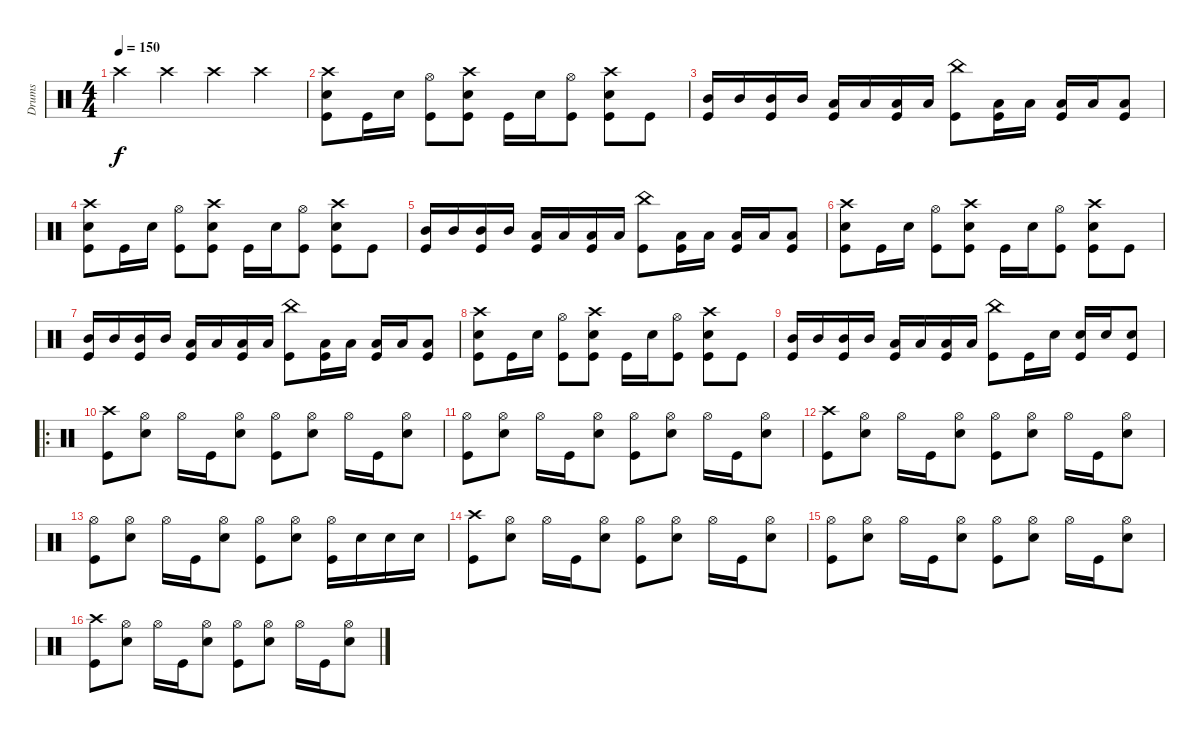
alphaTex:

\track ("Drums" "Drums") {instrument percussion}
\staff {score}
\articulation defaults
\ts (4 4)
\tempo 150
\clef neutral
\ks c "Crash high (hit)".4{dy f} "Crash high (hit)".4 "Crash high (hit)".4 "Crash high (hit)".4
|
("Crash high (hit)" "Snare (hit) 2" "Kick (hit)").8 "Kick (hit)".16 "Snare (hit) 2".16 ("Hi-Hat (open)" "Kick (hit)").8 ("Crash high (hit)" "Snare (hit) 2" "Kick (hit)").8 "Kick (hit)".16 "Snare (hit) 2".16 ("Hi-Hat (open)" "Kick (hit)").8 ("Crash high (hit)" "Snare (hit) 2" "Kick (hit)").8 "Kick (hit)".8 |
("Mid Tom (hit)" "Kick (hit)").16 "Mid Tom (hit)".16 ("Mid Tom (hit)" "Kick (hit)").16 "Mid Tom (hit)".16 ("Low Tom (hit)" "Kick (hit)").16 "Low Tom (hit)".16 ("Low Tom (hit)" "Kick (hit)").16 "Low Tom (hit)".16 ("China (hit)" "Kick (hit)").8 ("Low Floor Tom (hit)" "Kick (hit)").16 "Low Floor Tom (hit)".16 ("Low Floor Tom (hit)" "Kick (hit)").16 "Low Floor Tom (hit)".16 ("Low Floor Tom (hit)" "Kick (hit)").8 |
("Crash high (hit)" "Snare (hit) 2" "Kick (hit)").8 "Kick (hit)".16 "Snare (hit) 2".16 ("Hi-Hat (open)" "Kick (hit)").8 ("Crash high (hit)" "Snare (hit) 2" "Kick (hit)").8 "Kick (hit)".16 "Snare (hit) 2".16 ("Hi-Hat (open)" "Kick (hit)").8 ("Crash high (hit)" "Snare (hit) 2" "Kick (hit)").8 "Kick (hit)".8 |
("Mid Tom (hit)" "Kick (hit)").16 "Mid Tom (hit)".16 ("Mid Tom (hit)" "Kick (hit)").16 "Mid Tom (hit)".16 ("Low Tom (hit)" "Kick (hit)").16 "Low Tom (hit)".16 ("Low Tom (hit)" "Kick (hit)").16 "Low Tom (hit)".16 ("China (hit)" "Kick (hit)").8 ("Low Floor Tom (hit)" "Kick (hit)").16 "Low Floor Tom (hit)".16 ("Low Floor Tom (hit)" "Kick (hit)").16 "Low Floor Tom (hit)".16 ("Low Floor Tom (hit)" "Kick (hit)").8 |
("Crash high (hit)" "Snare (hit) 2" "Kick (hit)").8 "Kick (hit)".16 "Snare (hit) 2".16 ("Hi-Hat (open)" "Kick (hit)").8 ("Crash high (hit)" "Snare (hit) 2" "Kick (hit)").8 "Kick (hit)".16 "Snare (hit) 2".16 ("Hi-Hat (open)" "Kick (hit)").8 ("Crash high (hit)" "Snare (hit) 2" "Kick (hit)").8 "Kick (hit)".8 |
("Mid Tom (hit)" "Kick (hit)").16 "Mid Tom (hit)".16 ("Mid Tom (hit)" "Kick (hit)").16 "Mid Tom (hit)".16 ("Low Tom (hit)" "Kick (hit)").16 "Low Tom (hit)".16 ("Low Tom (hit)" "Kick (hit)").16 "Low Tom (hit)".16 ("China (hit)" "Kick (hit)").8 ("Low Floor Tom (hit)" "Kick (hit)").16 "Low Floor Tom (hit)".16 ("Low Floor Tom (hit)" "Kick (hit)").16 "Low Floor Tom (hit)".16 ("Low Floor Tom (hit)" "Kick (hit)").8 |
("Crash high (hit)" "Snare (hit) 2" "Kick (hit)").8 "Kick (hit)".16 "Snare (hit) 2".16 ("Hi-Hat (open)" "Kick (hit)").8 ("Crash high (hit)" "Snare (hit) 2" "Kick (hit)").8 "Kick (hit)".16 "Snare (hit) 2".16 ("Hi-Hat (open)" "Kick (hit)").8 ("Crash high (hit)" "Snare (hit) 2" "Kick (hit)").8 "Kick (hit)".8 |
("Mid Tom (hit)" "Kick (hit)").16 "Mid Tom (hit)".16 ("Mid Tom (hit)" "Kick (hit)").16 "Mid Tom (hit)".16 ("Low Tom (hit)" "Kick (hit)").16 "Low Tom (hit)".16 ("Low Tom (hit)" "Kick (hit)").16 "Low Tom (hit)".16 ("China (hit)" "Kick (hit)").8 "Kick (hit)".16 "Snare (hit) 2".16 ("Snare (hit) 2" "Kick (hit)").16 "Snare (hit) 2".16 ("Snare (hit) 2" "Kick (hit)").8 |
\ro
("Crash high (hit)" "Kick (hit)").8 ("Hi-Hat (open)" "Snare (hit) 2").8 "Hi-Hat (open)".16 "Kick (hit)".16 ("Hi-Hat (open)" "Snare (hit) 2").8 ("Hi-Hat (open)" "Kick (hit)").8 ("Hi-Hat (open)" "Snare (hit) 2").8 "Hi-Hat (open)".16 "Kick (hit)".16 ("Hi-Hat (open)" "Snare (hit) 2").8 |
("Hi-Hat (open)" "Kick (hit)").8 ("Hi-Hat (open)" "Snare (hit) 2").8 "Hi-Hat (open)".16 "Kick (hit)".16 ("Hi-Hat (open)" "Snare (hit) 2").8 ("Hi-Hat (open)" "Kick (hit)").8 ("Hi-Hat (open)" "Snare (hit) 2").8 "Hi-Hat (open)".16 "Kick (hit)".16 ("Hi-Hat (open)" "Snare (hit) 2").8 |
("Crash high (hit)" "Kick (hit)").8 ("Hi-Hat (open)" "Snare (hit) 2").8 "Hi-Hat (open)".16 "Kick (hit)".16 ("Hi-Hat (open)" "Snare (hit) 2").8 ("Hi-Hat (open)" "Kick (hit)").8 ("Hi-Hat (open)" "Snare (hit) 2").8 "Hi-Hat (open)".16 "Kick (hit)".16 ("Hi-Hat (open)" "Snare (hit) 2").8 |
("Hi-Hat (open)" "Kick (hit)").8 ("Hi-Hat (open)" "Snare (hit) 2").8 "Hi-Hat (open)".16 "Kick (hit)".16 ("Hi-Hat (open)" "Snare (hit) 2").8 ("Hi-Hat (open)" "Kick (hit)").8 ("Hi-Hat (open)" "Snare (hit) 2").8 ("Hi-Hat (open)" "Kick (hit)").16 "Snare (hit) 2".16 "Snare (hit) 2".16 "Snare (hit) 2".16 |
("Crash high (hit)" "Kick (hit)").8 ("Hi-Hat (open)" "Snare (hit) 2").8 "Hi-Hat (open)".16 "Kick (hit)".16 ("Hi-Hat (open)" "Snare (hit) 2").8 ("Hi-Hat (open)" "Kick (hit)").8 ("Hi-Hat (open)" "Snare (hit) 2").8 "Hi-Hat (open)".16 "Kick (hit)".16 ("Hi-Hat (open)" "Snare (hit) 2").8 |
("Hi-Hat (open)" "Kick (hit)").8 ("Hi-Hat (open)" "Snare (hit) 2").8 "Hi-Hat (open)".16 "Kick (hit)".16 ("Hi-Hat (open)" "Snare (hit) 2").8 ("Hi-Hat (open)" "Kick (hit)").8 ("Hi-Hat (open)" "Snare (hit) 2").8 "Hi-Hat (open)".16 "Kick (hit)".16 ("Hi-Hat (open)" "Snare (hit) 2").8 |
("Crash high (hit)" "Kick (hit)").8 ("Hi-Hat (open)" "Snare (hit) 2").8 "Hi-Hat (open)".16 "Kick (hit)".16 ("Hi-Hat (open)" "Snare (hit) 2").8 ("Hi-Hat (open)" "Kick (hit)").8 ("Hi-Hat (open)" "Snare (hit) 2").8 "Hi-Hat (open)".16 "Kick (hit)".16 ("Hi-Hat (open)" "Snare (hit) 2").8
